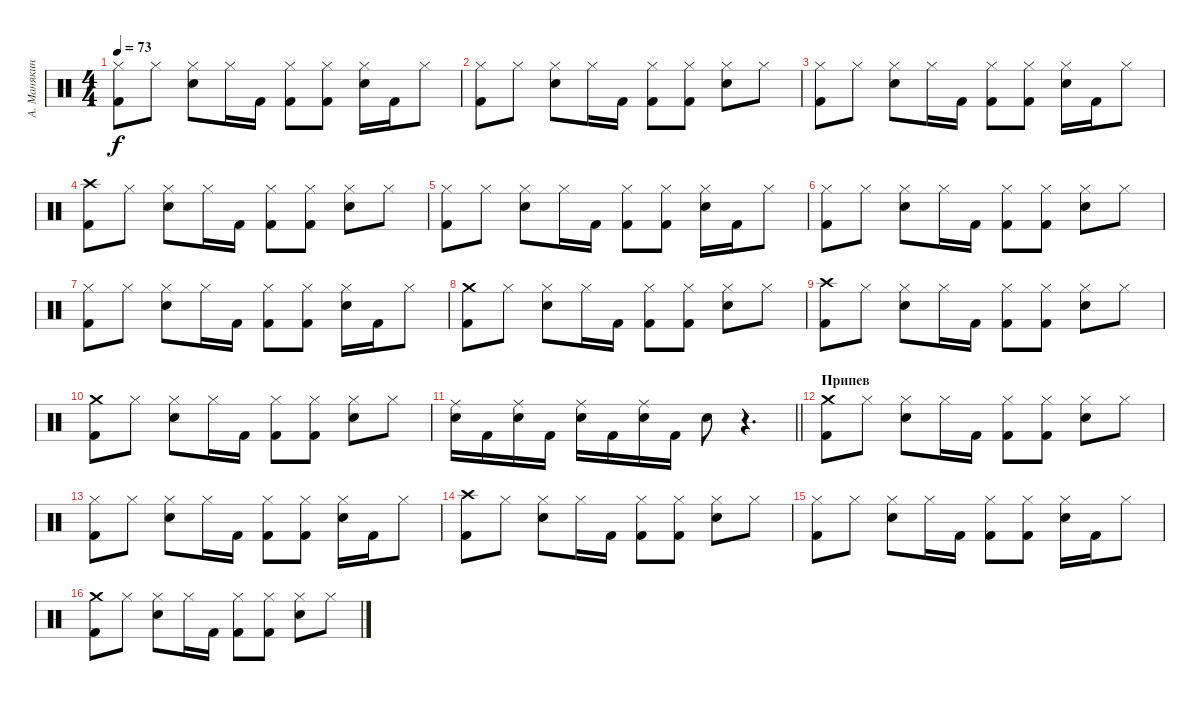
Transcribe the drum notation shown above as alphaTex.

\track ("А. Манякин" "А. Манякин") {instrument percussion}
\staff {score}
\articulation defaults
\ts (4 4)
\tempo 73
\clef neutral
\ks c
("Hi-Hat (closed)" "Kick (hit) 2").8{dy f} "Hi-Hat (closed)".8 ("Hi-Hat (closed)" "Snare (hit) 2").8 "Hi-Hat (closed)".16 "Kick (hit) 2".16 ("Hi-Hat (closed)" "Kick (hit) 2").8 ("Hi-Hat (closed)" "Kick (hit) 2").8 ("Hi-Hat (closed)" "Snare (hit) 2").16 "Kick (hit) 2".16 "Hi-Hat (closed)".8 |
("Hi-Hat (closed)" "Kick (hit) 2").8 "Hi-Hat (closed)".8 ("Snare (hit) 2" "Hi-Hat (closed)").8 "Hi-Hat (closed)".16 "Kick (hit) 2".16 ("Kick (hit) 2" "Hi-Hat (closed)").8 ("Kick (hit) 2" "Hi-Hat (closed)").8 ("Snare (hit) 2" "Hi-Hat (closed)").8 "Hi-Hat (closed)".8 |
("Hi-Hat (closed)" "Kick (hit) 2").8 "Hi-Hat (closed)".8 ("Hi-Hat (closed)" "Snare (hit) 2").8 "Hi-Hat (closed)".16 "Kick (hit) 2".16 ("Hi-Hat (closed)" "Kick (hit) 2").8 ("Hi-Hat (closed)" "Kick (hit) 2").8 ("Hi-Hat (closed)" "Snare (hit) 2").16 "Kick (hit) 2".16 "Hi-Hat (closed)".8 |
("Kick (hit) 2" "Crash high (hit)").8 "Hi-Hat (closed)".8 ("Snare (hit) 2" "Hi-Hat (closed)").8 "Hi-Hat (closed)".16 "Kick (hit) 2".16 ("Kick (hit) 2" "Hi-Hat (closed)").8 ("Kick (hit) 2" "Hi-Hat (closed)").8 ("Snare (hit) 2" "Hi-Hat (closed)").8 "Hi-Hat (closed)".8 |
("Hi-Hat (closed)" "Kick (hit) 2").8 "Hi-Hat (closed)".8 ("Hi-Hat (closed)" "Snare (hit) 2").8 "Hi-Hat (closed)".16 "Kick (hit) 2".16 ("Hi-Hat (closed)" "Kick (hit) 2").8 ("Hi-Hat (closed)" "Kick (hit) 2").8 ("Hi-Hat (closed)" "Snare (hit) 2").16 "Kick (hit) 2".16 "Hi-Hat (closed)".8 |
("Hi-Hat (closed)" "Kick (hit) 2").8 "Hi-Hat (closed)".8 ("Snare (hit) 2" "Hi-Hat (closed)").8 "Hi-Hat (closed)".16 "Kick (hit) 2".16 ("Kick (hit) 2" "Hi-Hat (closed)").8 ("Kick (hit) 2" "Hi-Hat (closed)").8 ("Snare (hit) 2" "Hi-Hat (closed)").8 "Hi-Hat (closed)".8 |
("Hi-Hat (closed)" "Kick (hit) 2").8 "Hi-Hat (closed)".8 ("Hi-Hat (closed)" "Snare (hit) 2").8 "Hi-Hat (closed)".16 "Kick (hit) 2".16 ("Hi-Hat (closed)" "Kick (hit) 2").8 ("Hi-Hat (closed)" "Kick (hit) 2").8 ("Hi-Hat (closed)" "Snare (hit) 2").16 "Kick (hit) 2".16 "Hi-Hat (closed)".8 |
("Kick (hit) 2" "Crash medium (hit)").8 "Hi-Hat (closed)".8 ("Snare (hit) 2" "Hi-Hat (closed)").8 "Hi-Hat (closed)".16 "Kick (hit) 2".16 ("Kick (hit) 2" "Hi-Hat (closed)").8 ("Kick (hit) 2" "Hi-Hat (closed)").8 ("Snare (hit) 2" "Hi-Hat (closed)").8 "Hi-Hat (closed)".8 |
("Kick (hit) 2" "Crash high (hit)").8 "Hi-Hat (closed)".8 ("Snare (hit) 2" "Hi-Hat (closed)").8 "Hi-Hat (closed)".16 "Kick (hit) 2".16 ("Kick (hit) 2" "Hi-Hat (closed)").8 ("Kick (hit) 2" "Hi-Hat (closed)").8 ("Snare (hit) 2" "Hi-Hat (closed)").8 "Hi-Hat (closed)".8 |
("Kick (hit) 2" "Crash medium (hit)").8 "Hi-Hat (closed)".8 ("Snare (hit) 2" "Hi-Hat (closed)").8 "Hi-Hat (closed)".16 "Kick (hit) 2".16 ("Kick (hit) 2" "Hi-Hat (closed)").8 ("Kick (hit) 2" "Hi-Hat (closed)").8 ("Snare (hit) 2" "Hi-Hat (closed)").8 "Hi-Hat (closed)".8 |
\barLineRight lightlight
("Ride (middle)" "Snare (hit) 2").16 "Kick (hit) 2".16 ("Ride (middle)" "Snare (hit) 2").16 "Kick (hit) 2".16 ("Ride (middle)" "Snare (hit) 2").16 "Kick (hit) 2".16 ("Ride (middle)" "Snare (hit) 2").16 "Kick (hit) 2".16 "Snare (hit) 2".8 r.4{d} |
\section ("" "Припев")
("Kick (hit) 2" "Crash medium (hit)").8 "Hi-Hat (closed)".8 ("Snare (hit) 2" "Hi-Hat (closed)").8 "Hi-Hat (closed)".16 "Kick (hit) 2".16 ("Kick (hit) 2" "Hi-Hat (closed)").8 ("Kick (hit) 2" "Hi-Hat (closed)").8 ("Snare (hit) 2" "Hi-Hat (closed)").8 "Hi-Hat (closed)".8 |
("Hi-Hat (closed)" "Kick (hit) 2").8 "Hi-Hat (closed)".8 ("Hi-Hat (closed)" "Snare (hit) 2").8 "Hi-Hat (closed)".16 "Kick (hit) 2".16 ("Hi-Hat (closed)" "Kick (hit) 2").8 ("Hi-Hat (closed)" "Kick (hit) 2").8 ("Hi-Hat (closed)" "Snare (hit) 2").16 "Kick (hit) 2".16 "Hi-Hat (closed)".8 |
("Kick (hit) 2" "Crash high (hit)").8 "Hi-Hat (closed)".8 ("Snare (hit) 2" "Hi-Hat (closed)").8 "Hi-Hat (closed)".16 "Kick (hit) 2".16 ("Kick (hit) 2" "Hi-Hat (closed)").8 ("Kick (hit) 2" "Hi-Hat (closed)").8 ("Snare (hit) 2" "Hi-Hat (closed)").8 "Hi-Hat (closed)".8 |
("Hi-Hat (closed)" "Kick (hit) 2").8 "Hi-Hat (closed)".8 ("Hi-Hat (closed)" "Snare (hit) 2").8 "Hi-Hat (closed)".16 "Kick (hit) 2".16 ("Hi-Hat (closed)" "Kick (hit) 2").8 ("Hi-Hat (closed)" "Kick (hit) 2").8 ("Hi-Hat (closed)" "Snare (hit) 2").16 "Kick (hit) 2".16 "Hi-Hat (closed)".8 |
("Kick (hit) 2" "Crash medium (hit)").8 "Hi-Hat (closed)".8 ("Snare (hit) 2" "Hi-Hat (closed)").8 "Hi-Hat (closed)".16 "Kick (hit) 2".16 ("Kick (hit) 2" "Hi-Hat (closed)").8 ("Kick (hit) 2" "Hi-Hat (closed)").8 ("Snare (hit) 2" "Hi-Hat (closed)").8 "Hi-Hat (closed)".8
